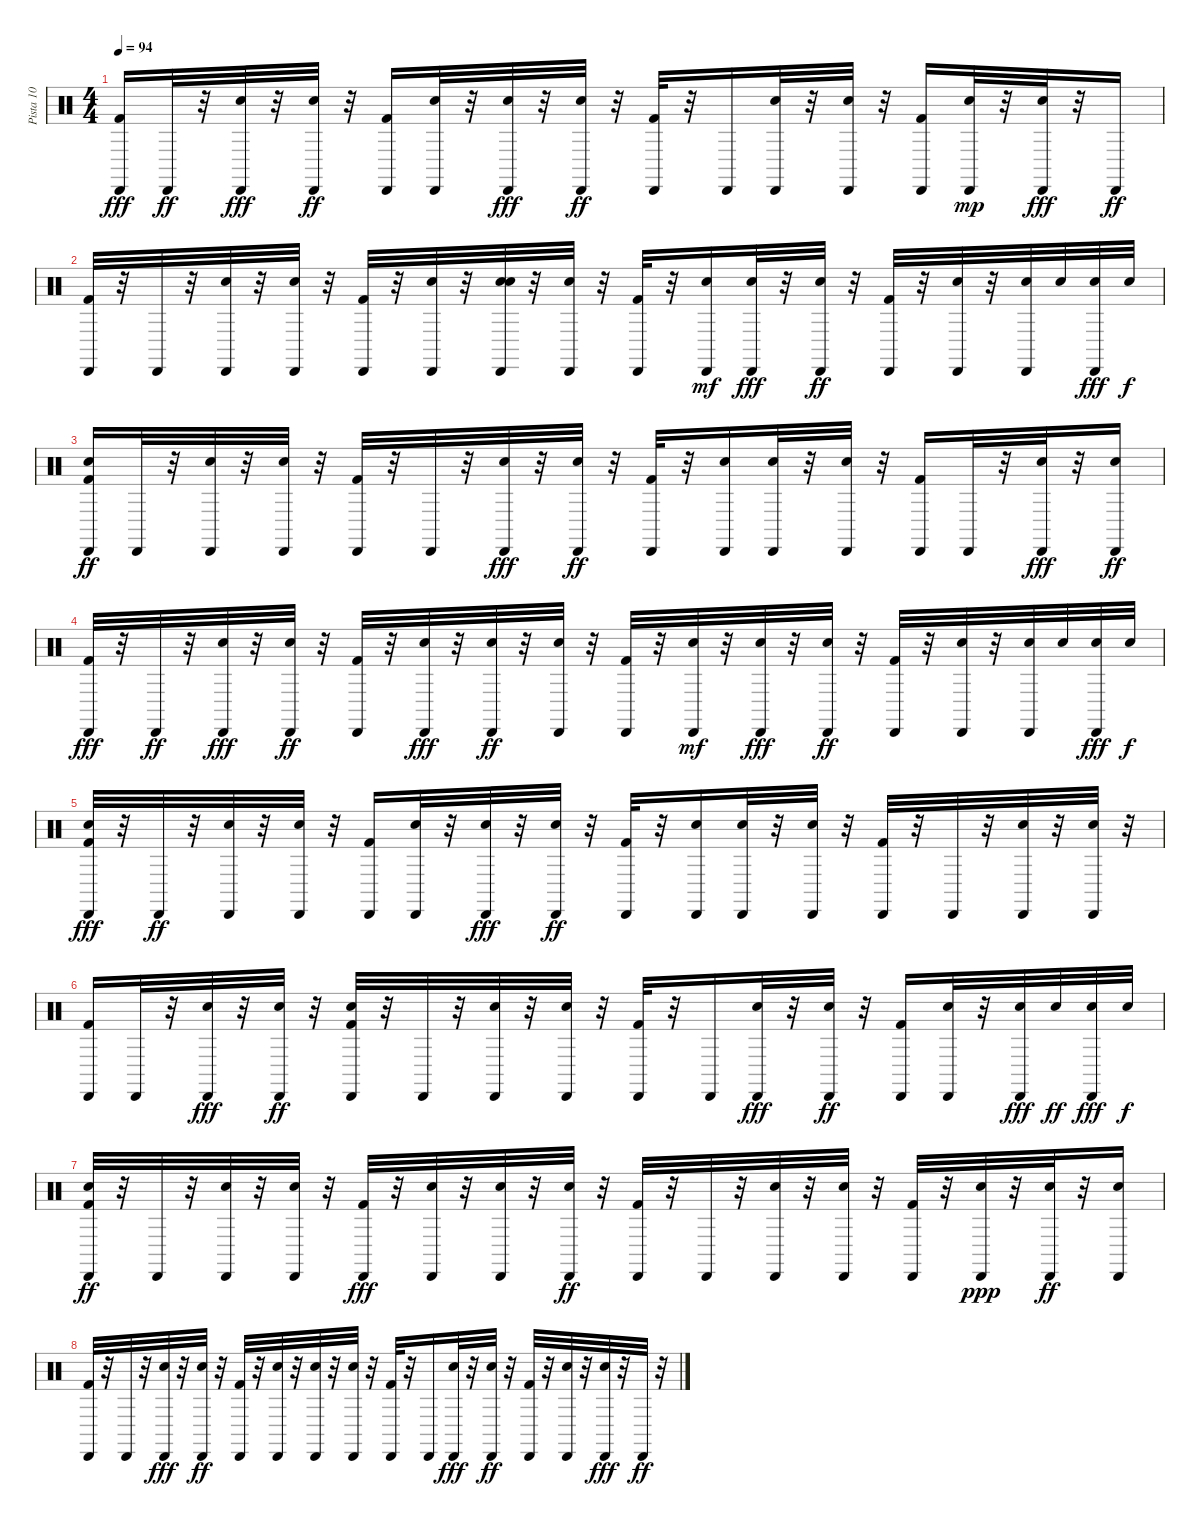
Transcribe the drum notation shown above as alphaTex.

\track ("Pista 10" "Pista 10") {instrument percussion}
\staff {score}
\articulation defaults
\ts (4 4)
\tempo 94
\clef neutral
\ks c
("Cabasa (hit)" "Kick (hit) 2").16{dy fff} "Cabasa (hit)".32{dy ff} r.32 ("Cabasa (hit)" "Snare (hit) 2").32{dy fff} r.32 ("Electric Snare (hit)" "Cabasa (hit)").32{dy ff} r.32 ("Kick (hit) 2" "Cabasa (hit)").16 ("Electric Snare (hit)" "Cabasa (hit)").32 r.32 ("Cabasa (hit)" "Snare (hit) 2").32{dy fff} r.32 ("Cabasa (hit)" "Electric Snare (hit)").32{dy ff} r.32 ("Cabasa (hit)" "Kick (hit) 2").32 r.32 "Cabasa (hit)".16 ("Snare (hit) 2" "Cabasa (hit)").32 r.32 ("Electric Snare (hit)" "Cabasa (hit)").32 r.32 ("Cabasa (hit)" "Kick (hit) 2").16 ("Cabasa (hit)" "Electric Snare (hit)").32{dy mp} r.32 ("Cabasa (hit)" "Snare (hit) 2").32{dy fff} r.32 "Cabasa (hit)".16{dy ff} |
("Kick (hit) 2" "Cabasa (hit)").32 r.32 "Cabasa (hit)".32 r.32 ("Snare (hit) 2" "Cabasa (hit)").32 r.32 ("Cabasa (hit)" "Electric Snare (hit)").32 r.32 ("Cabasa (hit)" "Kick (hit) 2").32 r.32 ("Cabasa (hit)" "Electric Snare (hit)").32 r.32 ("Snare (hit) 2" "Electric Snare (hit)" "Cabasa (hit)").32 r.32 ("Electric Snare (hit)" "Cabasa (hit)").32 r.32 ("Kick (hit) 2" "Cabasa (hit)").32 r.32 ("Cabasa (hit)" "Electric Snare (hit)").16{dy mf} ("Cabasa (hit)" "Snare (hit) 2").32{dy fff} r.32 ("Cabasa (hit)" "Electric Snare (hit)").32{dy ff} r.32 ("Kick (hit) 2" "Cabasa (hit)").32 r.32 ("Electric Snare (hit)" "Cabasa (hit)").32 r.32 ("Snare (hit) 2" "Cabasa (hit)").32 "Electric Snare (hit)".32 ("Cabasa (hit)" "Snare (hit) 2").32{dy fff} "Electric Snare (hit)".32{dy f} |
("Cabasa (hit)" "Snare (hit) 2" "Kick (hit) 2").16{dy ff} "Cabasa (hit)".32 r.32 ("Snare (hit) 2" "Cabasa (hit)").32 r.32 ("Electric Snare (hit)" "Cabasa (hit)").32 r.32 ("Kick (hit) 2" "Cabasa (hit)").32 r.32 "Cabasa (hit)".32 r.32 ("Cabasa (hit)" "Snare (hit) 2").32{dy fff} r.32 ("Cabasa (hit)" "Electric Snare (hit)").32{dy ff} r.32 ("Cabasa (hit)" "Kick (hit) 2").32 r.32 ("Electric Snare (hit)" "Cabasa (hit)").16 ("Snare (hit) 2" "Cabasa (hit)").32 r.32 ("Electric Snare (hit)" "Cabasa (hit)").32 r.32 ("Cabasa (hit)" "Kick (hit) 2").16 "Cabasa (hit)".32 r.32 ("Cabasa (hit)" "Snare (hit) 2").32{dy fff} r.32 ("Electric Snare (hit)" "Cabasa (hit)").16{dy ff} |
("Kick (hit) 2" "Cabasa (hit)").32{dy fff} r.32 "Cabasa (hit)".32{dy ff} r.32 ("Cabasa (hit)" "Snare (hit) 2").32{dy fff} r.32 ("Cabasa (hit)" "Electric Snare (hit)").32{dy ff} r.32 ("Cabasa (hit)" "Kick (hit) 2").32 r.32 ("Electric Snare (hit)" "Cabasa (hit)").32{dy fff} r.32 ("Snare (hit) 2" "Cabasa (hit)").32{dy ff} r.32 ("Electric Snare (hit)" "Cabasa (hit)").32 r.32 ("Cabasa (hit)" "Kick (hit) 2").32 r.32 ("Cabasa (hit)" "Electric Snare (hit)").32{dy mf} r.32 ("Cabasa (hit)" "Snare (hit) 2").32{dy fff} r.32 ("Cabasa (hit)" "Electric Snare (hit)").32{dy ff} r.32 ("Kick (hit) 2" "Cabasa (hit)").32 r.32 ("Electric Snare (hit)" "Cabasa (hit)").32 r.32 ("Snare (hit) 2" "Cabasa (hit)").32 "Electric Snare (hit)".32 ("Cabasa (hit)" "Snare (hit) 2").32{dy fff} "Electric Snare (hit)".32{dy f} |
("Cabasa (hit)" "Snare (hit) 2" "Kick (hit) 2").32{dy fff} r.32 "Cabasa (hit)".32{dy ff} r.32 ("Snare (hit) 2" "Cabasa (hit)").32 r.32 ("Electric Snare (hit)" "Cabasa (hit)").32 r.32 ("Kick (hit) 2" "Cabasa (hit)").16 ("Cabasa (hit)" "Electric Snare (hit)").32 r.32 ("Cabasa (hit)" "Snare (hit) 2").32{dy fff} r.32 ("Cabasa (hit)" "Electric Snare (hit)").32{dy ff} r.32 ("Kick (hit) 2" "Cabasa (hit)").32 r.32 ("Electric Snare (hit)" "Cabasa (hit)").16 ("Snare (hit) 2" "Cabasa (hit)").32 r.32 ("Cabasa (hit)" "Electric Snare (hit)").32 r.32 ("Cabasa (hit)" "Kick (hit) 2").32 r.32 "Cabasa (hit)".32 r.32 ("Snare (hit) 2" "Cabasa (hit)").32 r.32 ("Electric Snare (hit)" "Cabasa (hit)").32 r.32 |
("Kick (hit) 2" "Cabasa (hit)").16 "Cabasa (hit)".32 r.32 ("Cabasa (hit)" "Snare (hit) 2").32{dy fff} r.32 ("Cabasa (hit)" "Electric Snare (hit)").32{dy ff} r.32 ("Cabasa (hit)" "Snare (hit) 2" "Kick (hit) 2").32 r.32 "Cabasa (hit)".32 r.32 ("Snare (hit) 2" "Cabasa (hit)").32 r.32 ("Electric Snare (hit)" "Cabasa (hit)").32 r.32 ("Cabasa (hit)" "Kick (hit) 2").32 r.32 "Cabasa (hit)".16 ("Cabasa (hit)" "Snare (hit) 2").32{dy fff} r.32 ("Electric Snare (hit)" "Cabasa (hit)").32{dy ff} r.32 ("Kick (hit) 2" "Cabasa (hit)").16 ("Electric Snare (hit)" "Cabasa (hit)").32 r.32 ("Cabasa (hit)" "Snare (hit) 2").32{dy fff} "Electric Snare (hit)".32{dy ff} ("Cabasa (hit)" "Snare (hit) 2").32{dy fff} "Electric Snare (hit)".32{dy f} |
("Cabasa (hit)" "Snare (hit) 2" "Kick (hit) 2").32{dy ff} r.32 "Cabasa (hit)".32 r.32 ("Snare (hit) 2" "Cabasa (hit)").32 r.32 ("Electric Snare (hit)" "Cabasa (hit)").32 r.32 ("Kick (hit) 2" "Cabasa (hit)").32{dy fff} r.32 ("Cabasa (hit)" "Electric Snare (hit)").32 r.32 ("Cabasa (hit)" "Snare (hit) 2").32 r.32 ("Cabasa (hit)" "Electric Snare (hit)").32{dy ff} r.32 ("Kick (hit) 2" "Cabasa (hit)").32 r.32 "Cabasa (hit)".32 r.32 ("Snare (hit) 2" "Cabasa (hit)").32 r.32 ("Cabasa (hit)" "Electric Snare (hit)").32 r.32 ("Cabasa (hit)" "Kick (hit) 2").32 r.32 ("Cabasa (hit)" "Electric Snare (hit)").32{dy ppp} r.32 ("Snare (hit) 2" "Cabasa (hit)").32{dy ff} r.32 ("Electric Snare (hit)" "Cabasa (hit)").16 |
("Kick (hit) 2" "Cabasa (hit)").32 r.32 "Cabasa (hit)".32 r.32 ("Cabasa (hit)" "Snare (hit) 2").32{dy fff} r.32 ("Cabasa (hit)" "Electric Snare (hit)").32{dy ff} r.32 ("Kick (hit) 2" "Cabasa (hit)").32 r.32 ("Electric Snare (hit)" "Cabasa (hit)").32 r.32 ("Snare (hit) 2" "Cabasa (hit)").32 r.32 ("Electric Snare (hit)" "Cabasa (hit)").32 r.32 ("Cabasa (hit)" "Kick (hit) 2").32 r.32 "Cabasa (hit)".16 ("Cabasa (hit)" "Snare (hit) 2").32{dy fff} r.32 ("Electric Snare (hit)" "Cabasa (hit)").32{dy ff} r.32 ("Kick (hit) 2" "Cabasa (hit)").32 r.32 ("Electric Snare (hit)" "Cabasa (hit)").32 r.32 ("Cabasa (hit)" "Snare (hit) 2").32{dy fff} r.32 "Cabasa (hit)".32{dy ff} r.32
